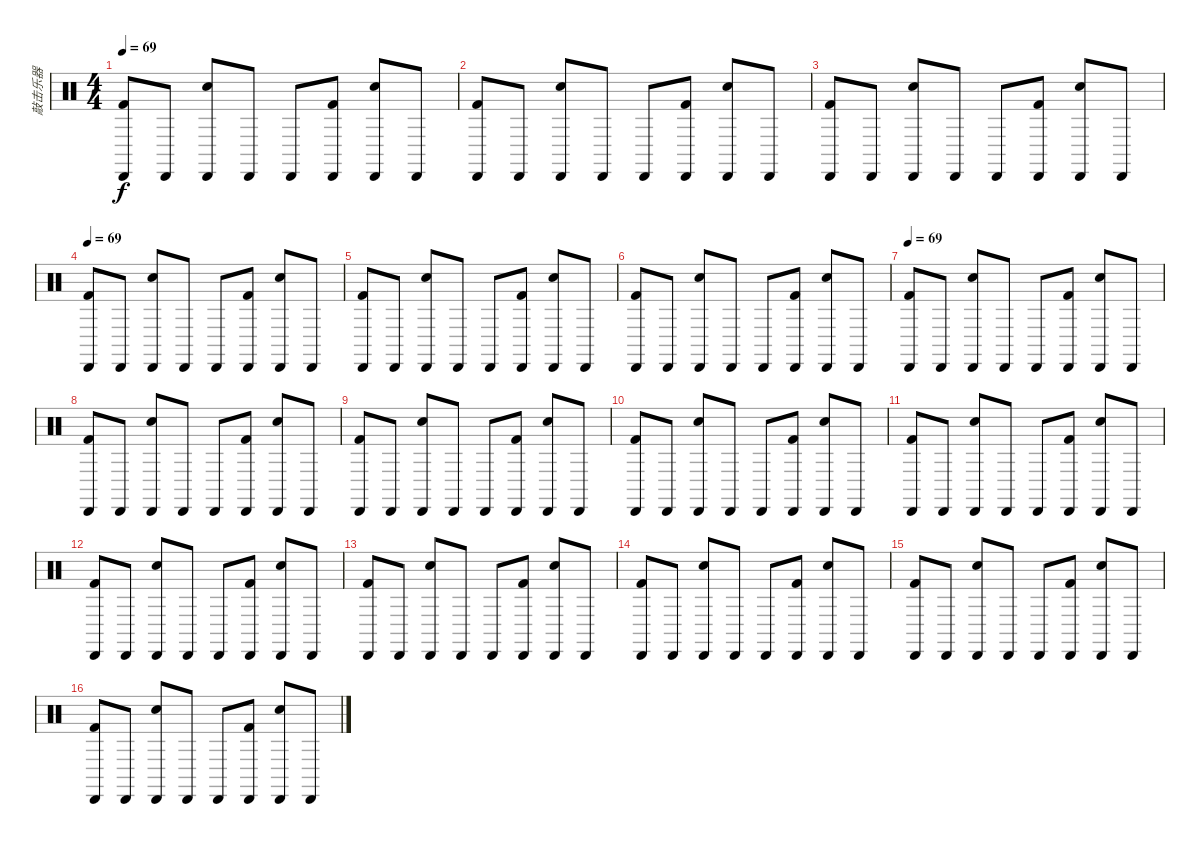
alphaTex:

\track ("敲击乐器" "敲击乐器") {instrument percussion}
\staff {score}
\articulation defaults
\ts (4 4)
\tempo 69
\clef neutral
\ks c
("Cabasa (hit)" "Kick (hit) 2").8{dy f} "Cabasa (hit)".8 ("Cabasa (hit)" "Electric Snare (hit)").8 "Cabasa (hit)".8 "Cabasa (hit)".8 ("Cabasa (hit)" "Kick (hit) 2").8 ("Cabasa (hit)" "Electric Snare (hit)").8 "Cabasa (hit)".8 |
("Cabasa (hit)" "Kick (hit) 2").8 "Cabasa (hit)".8 ("Cabasa (hit)" "Electric Snare (hit)").8 "Cabasa (hit)".8 "Cabasa (hit)".8 ("Cabasa (hit)" "Kick (hit) 2").8 ("Cabasa (hit)" "Electric Snare (hit)").8 "Cabasa (hit)".8 |
("Cabasa (hit)" "Kick (hit) 2").8 "Cabasa (hit)".8 ("Cabasa (hit)" "Electric Snare (hit)").8 "Cabasa (hit)".8 "Cabasa (hit)".8 ("Cabasa (hit)" "Kick (hit) 2").8 ("Cabasa (hit)" "Electric Snare (hit)").8 "Cabasa (hit)".8 |
\tempo 69
("Cabasa (hit)" "Kick (hit) 2").8 "Cabasa (hit)".8 ("Cabasa (hit)" "Electric Snare (hit)").8 "Cabasa (hit)".8 "Cabasa (hit)".8 ("Cabasa (hit)" "Kick (hit) 2").8 ("Cabasa (hit)" "Electric Snare (hit)").8 "Cabasa (hit)".8 |
("Cabasa (hit)" "Kick (hit) 2").8 "Cabasa (hit)".8 ("Cabasa (hit)" "Electric Snare (hit)").8 "Cabasa (hit)".8 "Cabasa (hit)".8 ("Cabasa (hit)" "Kick (hit) 2").8 ("Cabasa (hit)" "Electric Snare (hit)").8 "Cabasa (hit)".8 |
("Cabasa (hit)" "Kick (hit) 2").8 "Cabasa (hit)".8 ("Cabasa (hit)" "Electric Snare (hit)").8 "Cabasa (hit)".8 "Cabasa (hit)".8 ("Cabasa (hit)" "Kick (hit) 2").8 ("Cabasa (hit)" "Electric Snare (hit)").8 "Cabasa (hit)".8 |
\tempo 69
("Cabasa (hit)" "Kick (hit) 2").8 "Cabasa (hit)".8 ("Cabasa (hit)" "Electric Snare (hit)").8 "Cabasa (hit)".8 "Cabasa (hit)".8 ("Cabasa (hit)" "Kick (hit) 2").8 ("Cabasa (hit)" "Electric Snare (hit)").8 "Cabasa (hit)".8 |
("Cabasa (hit)" "Kick (hit) 2").8 "Cabasa (hit)".8 ("Cabasa (hit)" "Electric Snare (hit)").8 "Cabasa (hit)".8 "Cabasa (hit)".8 ("Cabasa (hit)" "Kick (hit) 2").8 ("Cabasa (hit)" "Electric Snare (hit)").8 "Cabasa (hit)".8 |
("Cabasa (hit)" "Kick (hit) 2").8 "Cabasa (hit)".8 ("Cabasa (hit)" "Electric Snare (hit)").8 "Cabasa (hit)".8 "Cabasa (hit)".8 ("Cabasa (hit)" "Kick (hit) 2").8 ("Cabasa (hit)" "Electric Snare (hit)").8 "Cabasa (hit)".8 |
("Cabasa (hit)" "Kick (hit) 2").8 "Cabasa (hit)".8 ("Cabasa (hit)" "Electric Snare (hit)").8 "Cabasa (hit)".8 "Cabasa (hit)".8 ("Cabasa (hit)" "Kick (hit) 2").8 ("Cabasa (hit)" "Electric Snare (hit)").8 "Cabasa (hit)".8 |
("Cabasa (hit)" "Kick (hit) 2").8 "Cabasa (hit)".8 ("Cabasa (hit)" "Electric Snare (hit)").8 "Cabasa (hit)".8 "Cabasa (hit)".8 ("Cabasa (hit)" "Kick (hit) 2").8 ("Cabasa (hit)" "Electric Snare (hit)").8 "Cabasa (hit)".8 |
("Cabasa (hit)" "Kick (hit) 2").8 "Cabasa (hit)".8 ("Cabasa (hit)" "Electric Snare (hit)").8 "Cabasa (hit)".8 "Cabasa (hit)".8 ("Cabasa (hit)" "Kick (hit) 2").8 ("Cabasa (hit)" "Electric Snare (hit)").8 "Cabasa (hit)".8 |
("Cabasa (hit)" "Kick (hit) 2").8 "Cabasa (hit)".8 ("Cabasa (hit)" "Electric Snare (hit)").8 "Cabasa (hit)".8 "Cabasa (hit)".8 ("Cabasa (hit)" "Kick (hit) 2").8 ("Cabasa (hit)" "Electric Snare (hit)").8 "Cabasa (hit)".8 |
("Cabasa (hit)" "Kick (hit) 2").8 "Cabasa (hit)".8 ("Cabasa (hit)" "Electric Snare (hit)").8 "Cabasa (hit)".8 "Cabasa (hit)".8 ("Cabasa (hit)" "Kick (hit) 2").8 ("Cabasa (hit)" "Electric Snare (hit)").8 "Cabasa (hit)".8 |
("Cabasa (hit)" "Kick (hit) 2").8 "Cabasa (hit)".8 ("Cabasa (hit)" "Electric Snare (hit)").8 "Cabasa (hit)".8 "Cabasa (hit)".8 ("Cabasa (hit)" "Kick (hit) 2").8 ("Cabasa (hit)" "Electric Snare (hit)").8 "Cabasa (hit)".8 |
("Cabasa (hit)" "Kick (hit) 2").8 "Cabasa (hit)".8 ("Cabasa (hit)" "Electric Snare (hit)").8 "Cabasa (hit)".8 "Cabasa (hit)".8 ("Cabasa (hit)" "Kick (hit) 2").8 ("Cabasa (hit)" "Electric Snare (hit)").8 "Cabasa (hit)".8
